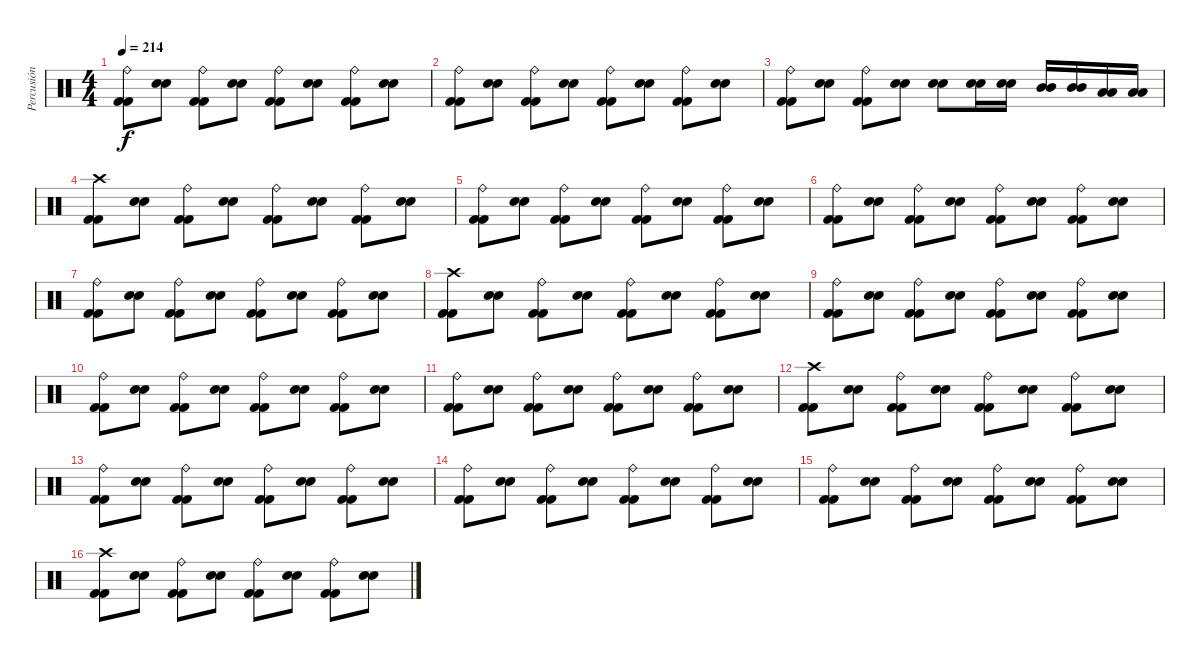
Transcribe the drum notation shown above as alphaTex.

\track ("Percusión" "Percusión") {instrument percussion}
\staff {score}
\articulation defaults
\ts (4 4)
\tempo 214
\clef neutral
\ks c
("Kick (hit) 2" "Kick (hit) 2" "Ride (bell)").8{dy f} ("Electric Snare (hit)" "Electric Snare (hit)").8 ("Kick (hit) 2" "Kick (hit) 2" "Ride (bell)").8 ("Electric Snare (hit)" "Electric Snare (hit)").8 ("Kick (hit) 2" "Kick (hit) 2" "Ride (bell)").8 ("Electric Snare (hit)" "Electric Snare (hit)").8 ("Kick (hit) 2" "Kick (hit) 2" "Ride (bell)").8 ("Electric Snare (hit)" "Electric Snare (hit)").8 |
("Kick (hit) 2" "Kick (hit) 2" "Ride (bell)").8 ("Electric Snare (hit)" "Electric Snare (hit)").8 ("Kick (hit) 2" "Kick (hit) 2" "Ride (bell)").8 ("Electric Snare (hit)" "Electric Snare (hit)").8 ("Kick (hit) 2" "Kick (hit) 2" "Ride (bell)").8 ("Electric Snare (hit)" "Electric Snare (hit)").8 ("Kick (hit) 2" "Kick (hit) 2" "Ride (bell)").8 ("Electric Snare (hit)" "Electric Snare (hit)").8 |
("Kick (hit) 2" "Kick (hit) 2" "Ride (bell)").8 ("Electric Snare (hit)" "Electric Snare (hit)").8 ("Kick (hit) 2" "Kick (hit) 2" "Ride (bell)").8 ("Electric Snare (hit)" "Electric Snare (hit)").8 ("Electric Snare (hit)" "Electric Snare (hit)").8 ("Electric Snare (hit)" "Electric Snare (hit)").16 ("Electric Snare (hit)" "Electric Snare (hit)").16 ("Mid Tom (hit)" "Mid Tom (hit)").16 ("Mid Tom (hit)" "Mid Tom (hit)").16 ("Low Floor Tom (hit)" "Low Floor Tom (hit)").16 ("Low Floor Tom (hit)" "Low Floor Tom (hit)").16 |
("Kick (hit) 2" "Kick (hit) 2" "Crash high (hit)").8 ("Electric Snare (hit)" "Electric Snare (hit)").8 ("Kick (hit) 2" "Kick (hit) 2" "Ride (bell)").8 ("Electric Snare (hit)" "Electric Snare (hit)").8 ("Kick (hit) 2" "Kick (hit) 2" "Ride (bell)").8 ("Electric Snare (hit)" "Electric Snare (hit)").8 ("Kick (hit) 2" "Kick (hit) 2" "Ride (bell)").8 ("Electric Snare (hit)" "Electric Snare (hit)").8 |
("Kick (hit) 2" "Kick (hit) 2" "Ride (bell)").8 ("Electric Snare (hit)" "Electric Snare (hit)").8 ("Kick (hit) 2" "Kick (hit) 2" "Ride (bell)").8 ("Electric Snare (hit)" "Electric Snare (hit)").8 ("Kick (hit) 2" "Kick (hit) 2" "Ride (bell)").8 ("Electric Snare (hit)" "Electric Snare (hit)").8 ("Kick (hit) 2" "Kick (hit) 2" "Ride (bell)").8 ("Electric Snare (hit)" "Electric Snare (hit)").8 |
("Kick (hit) 2" "Kick (hit) 2" "Ride (bell)").8 ("Electric Snare (hit)" "Electric Snare (hit)").8 ("Kick (hit) 2" "Kick (hit) 2" "Ride (bell)").8 ("Electric Snare (hit)" "Electric Snare (hit)").8 ("Kick (hit) 2" "Kick (hit) 2" "Ride (bell)").8 ("Electric Snare (hit)" "Electric Snare (hit)").8 ("Kick (hit) 2" "Kick (hit) 2" "Ride (bell)").8 ("Electric Snare (hit)" "Electric Snare (hit)").8 |
("Kick (hit) 2" "Kick (hit) 2" "Ride (bell)").8 ("Electric Snare (hit)" "Electric Snare (hit)").8 ("Kick (hit) 2" "Kick (hit) 2" "Ride (bell)").8 ("Electric Snare (hit)" "Electric Snare (hit)").8 ("Kick (hit) 2" "Kick (hit) 2" "Ride (bell)").8 ("Electric Snare (hit)" "Electric Snare (hit)").8 ("Kick (hit) 2" "Kick (hit) 2" "Ride (bell)").8 ("Electric Snare (hit)" "Electric Snare (hit)").8 |
("Kick (hit) 2" "Kick (hit) 2" "Crash high (hit)").8 ("Electric Snare (hit)" "Electric Snare (hit)").8 ("Kick (hit) 2" "Kick (hit) 2" "Ride (bell)").8 ("Electric Snare (hit)" "Electric Snare (hit)").8 ("Kick (hit) 2" "Kick (hit) 2" "Ride (bell)").8 ("Electric Snare (hit)" "Electric Snare (hit)").8 ("Kick (hit) 2" "Kick (hit) 2" "Ride (bell)").8 ("Electric Snare (hit)" "Electric Snare (hit)").8 |
("Kick (hit) 2" "Kick (hit) 2" "Ride (bell)").8 ("Electric Snare (hit)" "Electric Snare (hit)").8 ("Kick (hit) 2" "Kick (hit) 2" "Ride (bell)").8 ("Electric Snare (hit)" "Electric Snare (hit)").8 ("Kick (hit) 2" "Kick (hit) 2" "Ride (bell)").8 ("Electric Snare (hit)" "Electric Snare (hit)").8 ("Kick (hit) 2" "Kick (hit) 2" "Ride (bell)").8 ("Electric Snare (hit)" "Electric Snare (hit)").8 |
("Kick (hit) 2" "Kick (hit) 2" "Ride (bell)").8 ("Electric Snare (hit)" "Electric Snare (hit)").8 ("Kick (hit) 2" "Kick (hit) 2" "Ride (bell)").8 ("Electric Snare (hit)" "Electric Snare (hit)").8 ("Kick (hit) 2" "Kick (hit) 2" "Ride (bell)").8 ("Electric Snare (hit)" "Electric Snare (hit)").8 ("Kick (hit) 2" "Kick (hit) 2" "Ride (bell)").8 ("Electric Snare (hit)" "Electric Snare (hit)").8 |
("Kick (hit) 2" "Kick (hit) 2" "Ride (bell)").8 ("Electric Snare (hit)" "Electric Snare (hit)").8 ("Kick (hit) 2" "Kick (hit) 2" "Ride (bell)").8 ("Electric Snare (hit)" "Electric Snare (hit)").8 ("Kick (hit) 2" "Kick (hit) 2" "Ride (bell)").8 ("Electric Snare (hit)" "Electric Snare (hit)").8 ("Kick (hit) 2" "Kick (hit) 2" "Ride (bell)").8 ("Electric Snare (hit)" "Electric Snare (hit)").8 |
("Kick (hit) 2" "Kick (hit) 2" "Crash high (hit)").8 ("Electric Snare (hit)" "Electric Snare (hit)").8 ("Kick (hit) 2" "Kick (hit) 2" "Ride (bell)").8 ("Electric Snare (hit)" "Electric Snare (hit)").8 ("Kick (hit) 2" "Kick (hit) 2" "Ride (bell)").8 ("Electric Snare (hit)" "Electric Snare (hit)").8 ("Kick (hit) 2" "Kick (hit) 2" "Ride (bell)").8 ("Electric Snare (hit)" "Electric Snare (hit)").8 |
("Kick (hit) 2" "Kick (hit) 2" "Ride (bell)").8 ("Electric Snare (hit)" "Electric Snare (hit)").8 ("Kick (hit) 2" "Kick (hit) 2" "Ride (bell)").8 ("Electric Snare (hit)" "Electric Snare (hit)").8 ("Kick (hit) 2" "Kick (hit) 2" "Ride (bell)").8 ("Electric Snare (hit)" "Electric Snare (hit)").8 ("Kick (hit) 2" "Kick (hit) 2" "Ride (bell)").8 ("Electric Snare (hit)" "Electric Snare (hit)").8 |
("Kick (hit) 2" "Kick (hit) 2" "Ride (bell)").8 ("Electric Snare (hit)" "Electric Snare (hit)").8 ("Kick (hit) 2" "Kick (hit) 2" "Ride (bell)").8 ("Electric Snare (hit)" "Electric Snare (hit)").8 ("Kick (hit) 2" "Kick (hit) 2" "Ride (bell)").8 ("Electric Snare (hit)" "Electric Snare (hit)").8 ("Kick (hit) 2" "Kick (hit) 2" "Ride (bell)").8 ("Electric Snare (hit)" "Electric Snare (hit)").8 |
("Kick (hit) 2" "Kick (hit) 2" "Ride (bell)").8 ("Electric Snare (hit)" "Electric Snare (hit)").8 ("Kick (hit) 2" "Kick (hit) 2" "Ride (bell)").8 ("Electric Snare (hit)" "Electric Snare (hit)").8 ("Kick (hit) 2" "Kick (hit) 2" "Ride (bell)").8 ("Electric Snare (hit)" "Electric Snare (hit)").8 ("Kick (hit) 2" "Kick (hit) 2" "Ride (bell)").8 ("Electric Snare (hit)" "Electric Snare (hit)").8 |
("Kick (hit) 2" "Kick (hit) 2" "Crash high (hit)").8 ("Electric Snare (hit)" "Electric Snare (hit)").8 ("Kick (hit) 2" "Kick (hit) 2" "Ride (bell)").8 ("Electric Snare (hit)" "Electric Snare (hit)").8 ("Kick (hit) 2" "Kick (hit) 2" "Ride (bell)").8 ("Electric Snare (hit)" "Electric Snare (hit)").8 ("Kick (hit) 2" "Kick (hit) 2" "Ride (bell)").8 ("Electric Snare (hit)" "Electric Snare (hit)").8
